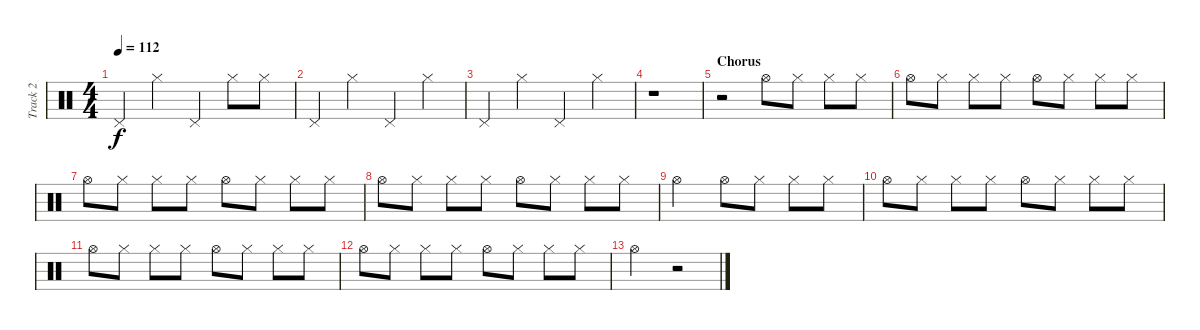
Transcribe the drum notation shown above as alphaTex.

\track ("Track 2" "Track 2") {instrument percussion}
\staff {score}
\articulation defaults
\ts (4 4)
\tempo 112
\clef neutral
\ks c "Pedal Hi-Hat (hit)".4{dy f} "Hi-Hat (closed)".4 "Pedal Hi-Hat (hit)".4 "Hi-Hat (closed)".8 "Hi-Hat (closed)".8
|
"Pedal Hi-Hat (hit)".4 "Hi-Hat (closed)".4 "Pedal Hi-Hat (hit)".4 "Hi-Hat (closed)".4 |
"Pedal Hi-Hat (hit)".4 "Hi-Hat (closed)".4 "Pedal Hi-Hat (hit)".4 "Hi-Hat (closed)".4 |
r.1 |
\section ("" "Chorus")
r.2 "Hi-Hat (open)".8 "Hi-Hat (closed)".8 "Hi-Hat (closed)".8 "Hi-Hat (closed)".8 |
"Hi-Hat (open)".8 "Hi-Hat (closed)".8 "Hi-Hat (closed)".8 "Hi-Hat (closed)".8 "Hi-Hat (open)".8 "Hi-Hat (closed)".8 "Hi-Hat (closed)".8 "Hi-Hat (closed)".8 |
"Hi-Hat (open)".8 "Hi-Hat (closed)".8 "Hi-Hat (closed)".8 "Hi-Hat (closed)".8 "Hi-Hat (open)".8 "Hi-Hat (closed)".8 "Hi-Hat (closed)".8 "Hi-Hat (closed)".8 |
"Hi-Hat (open)".8 "Hi-Hat (closed)".8 "Hi-Hat (closed)".8 "Hi-Hat (closed)".8 "Hi-Hat (open)".8 "Hi-Hat (closed)".8 "Hi-Hat (closed)".8 "Hi-Hat (closed)".8 |
"Hi-Hat (open)".2 "Hi-Hat (open)".8 "Hi-Hat (closed)".8 "Hi-Hat (closed)".8 "Hi-Hat (closed)".8 |
"Hi-Hat (open)".8 "Hi-Hat (closed)".8 "Hi-Hat (closed)".8 "Hi-Hat (closed)".8 "Hi-Hat (open)".8 "Hi-Hat (closed)".8 "Hi-Hat (closed)".8 "Hi-Hat (closed)".8 |
"Hi-Hat (open)".8 "Hi-Hat (closed)".8 "Hi-Hat (closed)".8 "Hi-Hat (closed)".8 "Hi-Hat (open)".8 "Hi-Hat (closed)".8 "Hi-Hat (closed)".8 "Hi-Hat (closed)".8 |
"Hi-Hat (open)".8 "Hi-Hat (closed)".8 "Hi-Hat (closed)".8 "Hi-Hat (closed)".8 "Hi-Hat (open)".8 "Hi-Hat (closed)".8 "Hi-Hat (closed)".8 "Hi-Hat (closed)".8 |
"Hi-Hat (open)".2 r.2
